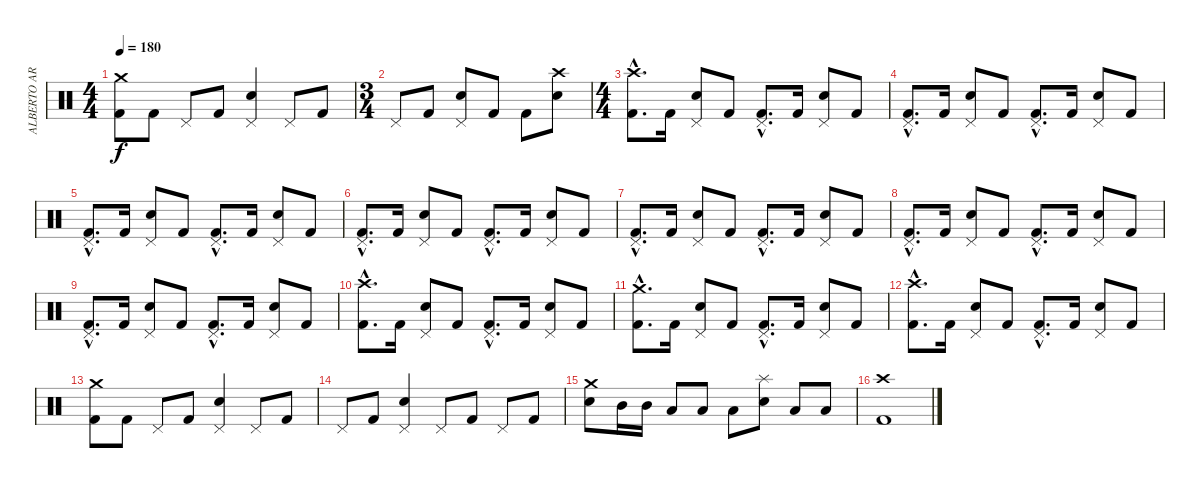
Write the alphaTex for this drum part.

\track ("ALBERTO ARDINES" "ALBERTO AR") {instrument percussion}
\staff {score}
\articulation defaults
\ts (4 4)
\tempo 180
\clef neutral
\ks c
("Crash medium (hit)" "Kick (hit) 2").8{dy f} "Kick (hit) 2".8 "Pedal Hi-Hat (hit)".8 "Kick (hit) 2".8 ("Pedal Hi-Hat (hit)" "Electric Snare (hit)").4 "Pedal Hi-Hat (hit)".8 "Kick (hit) 2".8 |
\ts (3 4)
"Pedal Hi-Hat (hit)".8 "Kick (hit) 2".8 ("Pedal Hi-Hat (hit)" "Electric Snare (hit)").8 "Kick (hit) 2".8 "Kick (hit) 2".8 ("Crash high (hit)" "Electric Snare (hit)").8 |
\ts (4 4)
("Crash high (hit)"{hac} "Kick (hit) 2"{hac}).8{d} "Kick (hit) 2".16 ("Pedal Hi-Hat (hit)" "Electric Snare (hit)").8 "Kick (hit) 2".8 ("Pedal Hi-Hat (hit)"{hac} "Kick (hit) 2"{hac}).8{d} "Kick (hit) 2".16 ("Pedal Hi-Hat (hit)" "Electric Snare (hit)").8 "Kick (hit) 2".8 |
("Pedal Hi-Hat (hit)"{hac} "Kick (hit) 2"{hac}).8{d} "Kick (hit) 2".16 ("Pedal Hi-Hat (hit)" "Electric Snare (hit)").8 "Kick (hit) 2".8 ("Pedal Hi-Hat (hit)"{hac} "Kick (hit) 2"{hac}).8{d} "Kick (hit) 2".16 ("Pedal Hi-Hat (hit)" "Electric Snare (hit)").8 "Kick (hit) 2".8 |
("Pedal Hi-Hat (hit)"{hac} "Kick (hit) 2"{hac}).8{d} "Kick (hit) 2".16 ("Pedal Hi-Hat (hit)" "Electric Snare (hit)").8 "Kick (hit) 2".8 ("Pedal Hi-Hat (hit)"{hac} "Kick (hit) 2"{hac}).8{d} "Kick (hit) 2".16 ("Pedal Hi-Hat (hit)" "Electric Snare (hit)").8 "Kick (hit) 2".8 |
("Pedal Hi-Hat (hit)"{hac} "Kick (hit) 2"{hac}).8{d} "Kick (hit) 2".16 ("Pedal Hi-Hat (hit)" "Electric Snare (hit)").8 "Kick (hit) 2".8 ("Pedal Hi-Hat (hit)"{hac} "Kick (hit) 2"{hac}).8{d} "Kick (hit) 2".16 ("Pedal Hi-Hat (hit)" "Electric Snare (hit)").8 "Kick (hit) 2".8 |
("Pedal Hi-Hat (hit)"{hac} "Kick (hit) 2"{hac}).8{d} "Kick (hit) 2".16 ("Pedal Hi-Hat (hit)" "Electric Snare (hit)").8 "Kick (hit) 2".8 ("Pedal Hi-Hat (hit)"{hac} "Kick (hit) 2"{hac}).8{d} "Kick (hit) 2".16 ("Pedal Hi-Hat (hit)" "Electric Snare (hit)").8 "Kick (hit) 2".8 |
("Pedal Hi-Hat (hit)"{hac} "Kick (hit) 2"{hac}).8{d} "Kick (hit) 2".16 ("Pedal Hi-Hat (hit)" "Electric Snare (hit)").8 "Kick (hit) 2".8 ("Pedal Hi-Hat (hit)"{hac} "Kick (hit) 2"{hac}).8{d} "Kick (hit) 2".16 ("Pedal Hi-Hat (hit)" "Electric Snare (hit)").8 "Kick (hit) 2".8 |
("Pedal Hi-Hat (hit)"{hac} "Kick (hit) 2"{hac}).8{d} "Kick (hit) 2".16 ("Pedal Hi-Hat (hit)" "Electric Snare (hit)").8 "Kick (hit) 2".8 ("Pedal Hi-Hat (hit)"{hac} "Kick (hit) 2"{hac}).8{d} "Kick (hit) 2".16 ("Pedal Hi-Hat (hit)" "Electric Snare (hit)").8 "Kick (hit) 2".8 |
("Crash high (hit)"{hac} "Kick (hit) 2"{hac}).8{d} "Kick (hit) 2".16 ("Pedal Hi-Hat (hit)" "Electric Snare (hit)").8 "Kick (hit) 2".8 ("Pedal Hi-Hat (hit)"{hac} "Kick (hit) 2"{hac}).8{d} "Kick (hit) 2".16 ("Pedal Hi-Hat (hit)" "Electric Snare (hit)").8 "Kick (hit) 2".8 |
("Crash medium (hit)"{hac} "Kick (hit) 2"{hac}).8{d} "Kick (hit) 2".16 ("Pedal Hi-Hat (hit)" "Electric Snare (hit)").8 "Kick (hit) 2".8 ("Pedal Hi-Hat (hit)"{hac} "Kick (hit) 2"{hac}).8{d} "Kick (hit) 2".16 ("Pedal Hi-Hat (hit)" "Electric Snare (hit)").8 "Kick (hit) 2".8 |
("Crash high (hit)"{hac} "Kick (hit) 2"{hac}).8{d} "Kick (hit) 2".16 ("Pedal Hi-Hat (hit)" "Electric Snare (hit)").8 "Kick (hit) 2".8 ("Pedal Hi-Hat (hit)"{hac} "Kick (hit) 2"{hac}).8{d} "Kick (hit) 2".16 ("Pedal Hi-Hat (hit)" "Electric Snare (hit)").8 "Kick (hit) 2".8 |
("Crash medium (hit)" "Kick (hit) 2").8 "Kick (hit) 2".8 "Pedal Hi-Hat (hit)".8 "Kick (hit) 2".8 ("Pedal Hi-Hat (hit)" "Electric Snare (hit)").4 "Pedal Hi-Hat (hit)".8 "Kick (hit) 2".8 |
"Pedal Hi-Hat (hit)".8 "Kick (hit) 2".8 ("Pedal Hi-Hat (hit)" "Electric Snare (hit)").4 "Pedal Hi-Hat (hit)".8 "Kick (hit) 2".8 "Pedal Hi-Hat (hit)".8 "Kick (hit) 2".8 |
("Crash medium (hit)" "Electric Snare (hit)").8 "Mid Tom (hit)".16 "Mid Tom (hit)".16 "Low Tom (hit)".8 "Low Tom (hit)".8 "Low Floor Tom (hit)".8 ("Splash (hit)" "Electric Snare (hit)").8 "Low Tom (hit)".8 "Low Tom (hit)".8 |
("Crash high (hit)" "Kick (hit) 2").1
